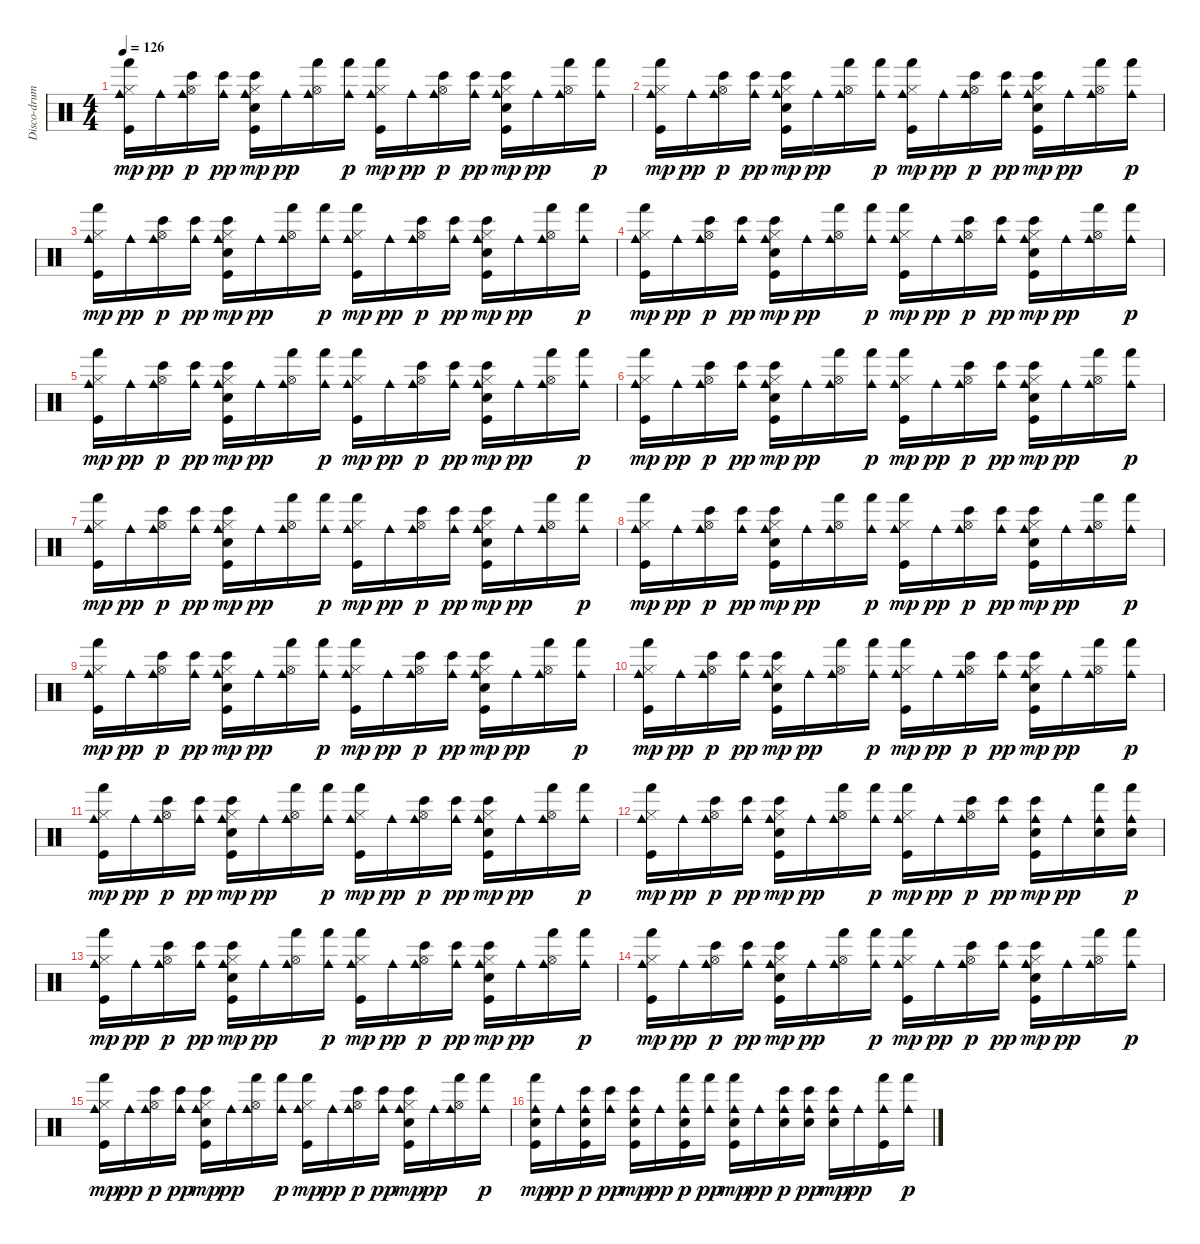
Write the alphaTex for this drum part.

\track ("Disco-drums !" "Disco-drum") {instrument percussion}
\staff {score}
\articulation defaults
\ts (4 4)
\tempo 126
\clef neutral
\ks c
("Hi-Hat (closed)" "Kick (hit)" "Cowbell medium (hit)" "Hand (hit)").16{dy mp} "Cowbell medium (hit)".16{dy pp} ("Hi-Hat (open)" "Cowbell medium (hit)" "Bongo High (hit)").16{dy p} ("Cowbell medium (hit)" "Bongo High (hit)").16{dy pp} ("Hi-Hat (closed)" "Kick (hit)" "Snare (hit) 2" "Cowbell medium (hit)" "Bongo High (hit)").16{dy mp} "Cowbell medium (hit)".16{dy pp} ("Hi-Hat (open)" "Cowbell medium (hit)" "Hand (hit)").16 ("Cowbell medium (hit)" "Hand (hit)").16{dy p} ("Hi-Hat (closed)" "Kick (hit)" "Cowbell medium (hit)" "Hand (hit)").16{dy mp} "Cowbell medium (hit)".16{dy pp} ("Hi-Hat (open)" "Cowbell medium (hit)" "Bongo High (hit)").16{dy p} ("Cowbell medium (hit)" "Bongo High (hit)").16{dy pp} ("Hi-Hat (closed)" "Kick (hit)" "Snare (hit) 2" "Cowbell medium (hit)" "Bongo High (hit)").16{dy mp} "Cowbell medium (hit)".16{dy pp} ("Hi-Hat (open)" "Cowbell medium (hit)" "Hand (hit)").16 ("Cowbell medium (hit)" "Hand (hit)").16{dy p} |
("Hi-Hat (closed)" "Kick (hit)" "Cowbell medium (hit)" "Hand (hit)").16{dy mp} "Cowbell medium (hit)".16{dy pp} ("Hi-Hat (open)" "Cowbell medium (hit)" "Bongo High (hit)").16{dy p} ("Cowbell medium (hit)" "Bongo High (hit)").16{dy pp} ("Hi-Hat (closed)" "Kick (hit)" "Snare (hit) 2" "Cowbell medium (hit)" "Bongo High (hit)").16{dy mp} "Cowbell medium (hit)".16{dy pp} ("Hi-Hat (open)" "Cowbell medium (hit)" "Hand (hit)").16 ("Cowbell medium (hit)" "Hand (hit)").16{dy p} ("Hi-Hat (closed)" "Kick (hit)" "Cowbell medium (hit)" "Hand (hit)").16{dy mp} "Cowbell medium (hit)".16{dy pp} ("Hi-Hat (open)" "Cowbell medium (hit)" "Bongo High (hit)").16{dy p} ("Cowbell medium (hit)" "Bongo High (hit)").16{dy pp} ("Hi-Hat (closed)" "Kick (hit)" "Snare (hit) 2" "Cowbell medium (hit)" "Bongo High (hit)").16{dy mp} "Cowbell medium (hit)".16{dy pp} ("Hi-Hat (open)" "Cowbell medium (hit)" "Hand (hit)").16 ("Cowbell medium (hit)" "Hand (hit)").16{dy p} |
("Hi-Hat (closed)" "Kick (hit)" "Cowbell medium (hit)" "Hand (hit)").16{dy mp} "Cowbell medium (hit)".16{dy pp} ("Hi-Hat (open)" "Cowbell medium (hit)" "Bongo High (hit)").16{dy p} ("Cowbell medium (hit)" "Bongo High (hit)").16{dy pp} ("Hi-Hat (closed)" "Kick (hit)" "Snare (hit) 2" "Cowbell medium (hit)" "Bongo High (hit)").16{dy mp} "Cowbell medium (hit)".16{dy pp} ("Hi-Hat (open)" "Cowbell medium (hit)" "Hand (hit)").16 ("Cowbell medium (hit)" "Hand (hit)").16{dy p} ("Hi-Hat (closed)" "Kick (hit)" "Cowbell medium (hit)" "Hand (hit)").16{dy mp} "Cowbell medium (hit)".16{dy pp} ("Hi-Hat (open)" "Cowbell medium (hit)" "Bongo High (hit)").16{dy p} ("Cowbell medium (hit)" "Bongo High (hit)").16{dy pp} ("Hi-Hat (closed)" "Kick (hit)" "Snare (hit) 2" "Cowbell medium (hit)" "Bongo High (hit)").16{dy mp} "Cowbell medium (hit)".16{dy pp} ("Hi-Hat (open)" "Cowbell medium (hit)" "Hand (hit)").16 ("Cowbell medium (hit)" "Hand (hit)").16{dy p} |
("Hi-Hat (closed)" "Kick (hit)" "Cowbell medium (hit)" "Hand (hit)").16{dy mp} "Cowbell medium (hit)".16{dy pp} ("Hi-Hat (open)" "Cowbell medium (hit)" "Bongo High (hit)").16{dy p} ("Cowbell medium (hit)" "Bongo High (hit)").16{dy pp} ("Hi-Hat (closed)" "Kick (hit)" "Snare (hit) 2" "Cowbell medium (hit)" "Bongo High (hit)").16{dy mp} "Cowbell medium (hit)".16{dy pp} ("Hi-Hat (open)" "Cowbell medium (hit)" "Hand (hit)").16 ("Cowbell medium (hit)" "Hand (hit)").16{dy p} ("Hi-Hat (closed)" "Kick (hit)" "Cowbell medium (hit)" "Hand (hit)").16{dy mp} "Cowbell medium (hit)".16{dy pp} ("Hi-Hat (open)" "Cowbell medium (hit)" "Bongo High (hit)").16{dy p} ("Cowbell medium (hit)" "Bongo High (hit)").16{dy pp} ("Hi-Hat (closed)" "Kick (hit)" "Snare (hit) 2" "Cowbell medium (hit)" "Bongo High (hit)").16{dy mp} "Cowbell medium (hit)".16{dy pp} ("Hi-Hat (open)" "Cowbell medium (hit)" "Hand (hit)").16 ("Cowbell medium (hit)" "Hand (hit)").16{dy p} |
("Hi-Hat (closed)" "Kick (hit)" "Cowbell medium (hit)" "Hand (hit)").16{dy mp} "Cowbell medium (hit)".16{dy pp} ("Hi-Hat (open)" "Cowbell medium (hit)" "Bongo High (hit)").16{dy p} ("Cowbell medium (hit)" "Bongo High (hit)").16{dy pp} ("Hi-Hat (closed)" "Kick (hit)" "Snare (hit) 2" "Cowbell medium (hit)" "Bongo High (hit)").16{dy mp} "Cowbell medium (hit)".16{dy pp} ("Hi-Hat (open)" "Cowbell medium (hit)" "Hand (hit)").16 ("Cowbell medium (hit)" "Hand (hit)").16{dy p} ("Hi-Hat (closed)" "Kick (hit)" "Cowbell medium (hit)" "Hand (hit)").16{dy mp} "Cowbell medium (hit)".16{dy pp} ("Hi-Hat (open)" "Cowbell medium (hit)" "Bongo High (hit)").16{dy p} ("Cowbell medium (hit)" "Bongo High (hit)").16{dy pp} ("Hi-Hat (closed)" "Kick (hit)" "Snare (hit) 2" "Cowbell medium (hit)" "Bongo High (hit)").16{dy mp} "Cowbell medium (hit)".16{dy pp} ("Hi-Hat (open)" "Cowbell medium (hit)" "Hand (hit)").16 ("Cowbell medium (hit)" "Hand (hit)").16{dy p} |
("Hi-Hat (closed)" "Kick (hit)" "Cowbell medium (hit)" "Hand (hit)").16{dy mp} "Cowbell medium (hit)".16{dy pp} ("Hi-Hat (open)" "Cowbell medium (hit)" "Bongo High (hit)").16{dy p} ("Cowbell medium (hit)" "Bongo High (hit)").16{dy pp} ("Hi-Hat (closed)" "Kick (hit)" "Snare (hit) 2" "Cowbell medium (hit)" "Bongo High (hit)").16{dy mp} "Cowbell medium (hit)".16{dy pp} ("Hi-Hat (open)" "Cowbell medium (hit)" "Hand (hit)").16 ("Cowbell medium (hit)" "Hand (hit)").16{dy p} ("Hi-Hat (closed)" "Kick (hit)" "Cowbell medium (hit)" "Hand (hit)").16{dy mp} "Cowbell medium (hit)".16{dy pp} ("Hi-Hat (open)" "Cowbell medium (hit)" "Bongo High (hit)").16{dy p} ("Cowbell medium (hit)" "Bongo High (hit)").16{dy pp} ("Hi-Hat (closed)" "Kick (hit)" "Snare (hit) 2" "Cowbell medium (hit)" "Bongo High (hit)").16{dy mp} "Cowbell medium (hit)".16{dy pp} ("Hi-Hat (open)" "Cowbell medium (hit)" "Hand (hit)").16 ("Cowbell medium (hit)" "Hand (hit)").16{dy p} |
("Hi-Hat (closed)" "Kick (hit)" "Cowbell medium (hit)" "Hand (hit)").16{dy mp} "Cowbell medium (hit)".16{dy pp} ("Hi-Hat (open)" "Cowbell medium (hit)" "Bongo High (hit)").16{dy p} ("Cowbell medium (hit)" "Bongo High (hit)").16{dy pp} ("Hi-Hat (closed)" "Kick (hit)" "Snare (hit) 2" "Cowbell medium (hit)" "Bongo High (hit)").16{dy mp} "Cowbell medium (hit)".16{dy pp} ("Hi-Hat (open)" "Cowbell medium (hit)" "Hand (hit)").16 ("Cowbell medium (hit)" "Hand (hit)").16{dy p} ("Hi-Hat (closed)" "Kick (hit)" "Cowbell medium (hit)" "Hand (hit)").16{dy mp} "Cowbell medium (hit)".16{dy pp} ("Hi-Hat (open)" "Cowbell medium (hit)" "Bongo High (hit)").16{dy p} ("Cowbell medium (hit)" "Bongo High (hit)").16{dy pp} ("Hi-Hat (closed)" "Kick (hit)" "Snare (hit) 2" "Cowbell medium (hit)" "Bongo High (hit)").16{dy mp} "Cowbell medium (hit)".16{dy pp} ("Hi-Hat (open)" "Cowbell medium (hit)" "Hand (hit)").16 ("Cowbell medium (hit)" "Hand (hit)").16{dy p} |
("Hi-Hat (closed)" "Kick (hit)" "Cowbell medium (hit)" "Hand (hit)").16{dy mp} "Cowbell medium (hit)".16{dy pp} ("Hi-Hat (open)" "Cowbell medium (hit)" "Bongo High (hit)").16{dy p} ("Cowbell medium (hit)" "Bongo High (hit)").16{dy pp} ("Hi-Hat (closed)" "Kick (hit)" "Snare (hit) 2" "Cowbell medium (hit)" "Bongo High (hit)").16{dy mp} "Cowbell medium (hit)".16{dy pp} ("Hi-Hat (open)" "Cowbell medium (hit)" "Hand (hit)").16 ("Cowbell medium (hit)" "Hand (hit)").16{dy p} ("Hi-Hat (closed)" "Kick (hit)" "Cowbell medium (hit)" "Hand (hit)").16{dy mp} "Cowbell medium (hit)".16{dy pp} ("Hi-Hat (open)" "Cowbell medium (hit)" "Bongo High (hit)").16{dy p} ("Cowbell medium (hit)" "Bongo High (hit)").16{dy pp} ("Hi-Hat (closed)" "Kick (hit)" "Snare (hit) 2" "Cowbell medium (hit)" "Bongo High (hit)").16{dy mp} "Cowbell medium (hit)".16{dy pp} ("Hi-Hat (open)" "Cowbell medium (hit)" "Hand (hit)").16 ("Cowbell medium (hit)" "Hand (hit)").16{dy p} |
("Hi-Hat (closed)" "Kick (hit)" "Cowbell medium (hit)" "Hand (hit)").16{dy mp} "Cowbell medium (hit)".16{dy pp} ("Hi-Hat (open)" "Cowbell medium (hit)" "Bongo High (hit)").16{dy p} ("Cowbell medium (hit)" "Bongo High (hit)").16{dy pp} ("Hi-Hat (closed)" "Kick (hit)" "Snare (hit) 2" "Cowbell medium (hit)" "Bongo High (hit)").16{dy mp} "Cowbell medium (hit)".16{dy pp} ("Hi-Hat (open)" "Cowbell medium (hit)" "Hand (hit)").16 ("Cowbell medium (hit)" "Hand (hit)").16{dy p} ("Hi-Hat (closed)" "Kick (hit)" "Cowbell medium (hit)" "Hand (hit)").16{dy mp} "Cowbell medium (hit)".16{dy pp} ("Hi-Hat (open)" "Cowbell medium (hit)" "Bongo High (hit)").16{dy p} ("Cowbell medium (hit)" "Bongo High (hit)").16{dy pp} ("Hi-Hat (closed)" "Kick (hit)" "Snare (hit) 2" "Cowbell medium (hit)" "Bongo High (hit)").16{dy mp} "Cowbell medium (hit)".16{dy pp} ("Hi-Hat (open)" "Cowbell medium (hit)" "Hand (hit)").16 ("Cowbell medium (hit)" "Hand (hit)").16{dy p} |
("Hi-Hat (closed)" "Kick (hit)" "Cowbell medium (hit)" "Hand (hit)").16{dy mp} "Cowbell medium (hit)".16{dy pp} ("Hi-Hat (open)" "Cowbell medium (hit)" "Bongo High (hit)").16{dy p} ("Cowbell medium (hit)" "Bongo High (hit)").16{dy pp} ("Hi-Hat (closed)" "Kick (hit)" "Snare (hit) 2" "Cowbell medium (hit)" "Bongo High (hit)").16{dy mp} "Cowbell medium (hit)".16{dy pp} ("Hi-Hat (open)" "Cowbell medium (hit)" "Hand (hit)").16 ("Cowbell medium (hit)" "Hand (hit)").16{dy p} ("Hi-Hat (closed)" "Kick (hit)" "Cowbell medium (hit)" "Hand (hit)").16{dy mp} "Cowbell medium (hit)".16{dy pp} ("Hi-Hat (open)" "Cowbell medium (hit)" "Bongo High (hit)").16{dy p} ("Cowbell medium (hit)" "Bongo High (hit)").16{dy pp} ("Hi-Hat (closed)" "Kick (hit)" "Snare (hit) 2" "Cowbell medium (hit)" "Bongo High (hit)").16{dy mp} "Cowbell medium (hit)".16{dy pp} ("Hi-Hat (open)" "Cowbell medium (hit)" "Hand (hit)").16 ("Cowbell medium (hit)" "Hand (hit)").16{dy p} |
("Hi-Hat (closed)" "Kick (hit)" "Cowbell medium (hit)" "Hand (hit)").16{dy mp} "Cowbell medium (hit)".16{dy pp} ("Hi-Hat (open)" "Cowbell medium (hit)" "Bongo High (hit)").16{dy p} ("Cowbell medium (hit)" "Bongo High (hit)").16{dy pp} ("Hi-Hat (closed)" "Kick (hit)" "Snare (hit) 2" "Cowbell medium (hit)" "Bongo High (hit)").16{dy mp} "Cowbell medium (hit)".16{dy pp} ("Hi-Hat (open)" "Cowbell medium (hit)" "Hand (hit)").16 ("Cowbell medium (hit)" "Hand (hit)").16{dy p} ("Hi-Hat (closed)" "Kick (hit)" "Cowbell medium (hit)" "Hand (hit)").16{dy mp} "Cowbell medium (hit)".16{dy pp} ("Hi-Hat (open)" "Cowbell medium (hit)" "Bongo High (hit)").16{dy p} ("Cowbell medium (hit)" "Bongo High (hit)").16{dy pp} ("Hi-Hat (closed)" "Kick (hit)" "Snare (hit) 2" "Cowbell medium (hit)" "Bongo High (hit)").16{dy mp} "Cowbell medium (hit)".16{dy pp} ("Hi-Hat (open)" "Cowbell medium (hit)" "Hand (hit)").16 ("Cowbell medium (hit)" "Hand (hit)").16{dy p} |
("Hi-Hat (closed)" "Kick (hit)" "Cowbell medium (hit)" "Hand (hit)").16{dy mp} "Cowbell medium (hit)".16{dy pp} ("Hi-Hat (open)" "Cowbell medium (hit)" "Bongo High (hit)").16{dy p} ("Cowbell medium (hit)" "Bongo High (hit)").16{dy pp} ("Hi-Hat (closed)" "Kick (hit)" "Snare (hit) 2" "Cowbell medium (hit)" "Bongo High (hit)").16{dy mp} "Cowbell medium (hit)".16{dy pp} ("Hi-Hat (open)" "Cowbell medium (hit)" "Hand (hit)").16 ("Cowbell medium (hit)" "Hand (hit)").16{dy p} ("Hi-Hat (closed)" "Kick (hit)" "Cowbell medium (hit)" "Hand (hit)").16{dy mp} "Cowbell medium (hit)".16{dy pp} ("Hi-Hat (open)" "Cowbell medium (hit)" "Bongo High (hit)").16{dy p} ("Cowbell medium (hit)" "Bongo High (hit)").16{dy pp} ("Kick (hit)" "Snare (hit) 2" "Cowbell medium (hit)" "Bongo High (hit)").16{dy mp} "Cowbell medium (hit)".16{dy pp} ("Snare (hit) 2" "Cowbell medium (hit)" "Hand (hit)").16 ("Snare (hit) 2" "Cowbell medium (hit)" "Hand (hit)").16{dy p} |
("Hi-Hat (closed)" "Kick (hit)" "Cowbell medium (hit)" "Hand (hit)").16{dy mp} "Cowbell medium (hit)".16{dy pp} ("Hi-Hat (open)" "Cowbell medium (hit)" "Bongo High (hit)").16{dy p} ("Cowbell medium (hit)" "Bongo High (hit)").16{dy pp} ("Hi-Hat (closed)" "Kick (hit)" "Snare (hit) 2" "Cowbell medium (hit)" "Bongo High (hit)").16{dy mp} "Cowbell medium (hit)".16{dy pp} ("Hi-Hat (open)" "Cowbell medium (hit)" "Hand (hit)").16 ("Cowbell medium (hit)" "Hand (hit)").16{dy p} ("Hi-Hat (closed)" "Kick (hit)" "Cowbell medium (hit)" "Hand (hit)").16{dy mp} "Cowbell medium (hit)".16{dy pp} ("Hi-Hat (open)" "Cowbell medium (hit)" "Bongo High (hit)").16{dy p} ("Cowbell medium (hit)" "Bongo High (hit)").16{dy pp} ("Hi-Hat (closed)" "Kick (hit)" "Snare (hit) 2" "Cowbell medium (hit)" "Bongo High (hit)").16{dy mp} "Cowbell medium (hit)".16{dy pp} ("Hi-Hat (open)" "Cowbell medium (hit)" "Hand (hit)").16 ("Cowbell medium (hit)" "Hand (hit)").16{dy p} |
("Hi-Hat (closed)" "Kick (hit)" "Cowbell medium (hit)" "Hand (hit)").16{dy mp} "Cowbell medium (hit)".16{dy pp} ("Hi-Hat (open)" "Cowbell medium (hit)" "Bongo High (hit)").16{dy p} ("Cowbell medium (hit)" "Bongo High (hit)").16{dy pp} ("Hi-Hat (closed)" "Kick (hit)" "Snare (hit) 2" "Cowbell medium (hit)" "Bongo High (hit)").16{dy mp} "Cowbell medium (hit)".16{dy pp} ("Hi-Hat (open)" "Cowbell medium (hit)" "Hand (hit)").16 ("Cowbell medium (hit)" "Hand (hit)").16{dy p} ("Hi-Hat (closed)" "Kick (hit)" "Cowbell medium (hit)" "Hand (hit)").16{dy mp} "Cowbell medium (hit)".16{dy pp} ("Hi-Hat (open)" "Cowbell medium (hit)" "Bongo High (hit)").16{dy p} ("Cowbell medium (hit)" "Bongo High (hit)").16{dy pp} ("Hi-Hat (closed)" "Kick (hit)" "Snare (hit) 2" "Cowbell medium (hit)" "Bongo High (hit)").16{dy mp} "Cowbell medium (hit)".16{dy pp} ("Hi-Hat (open)" "Cowbell medium (hit)" "Hand (hit)").16 ("Cowbell medium (hit)" "Hand (hit)").16{dy p} |
("Hi-Hat (closed)" "Kick (hit)" "Cowbell medium (hit)" "Hand (hit)").16{dy mp} "Cowbell medium (hit)".16{dy pp} ("Hi-Hat (open)" "Cowbell medium (hit)" "Bongo High (hit)").16{dy p} ("Cowbell medium (hit)" "Bongo High (hit)").16{dy pp} ("Hi-Hat (closed)" "Kick (hit)" "Snare (hit) 2" "Cowbell medium (hit)" "Bongo High (hit)").16{dy mp} "Cowbell medium (hit)".16{dy pp} ("Hi-Hat (open)" "Cowbell medium (hit)" "Hand (hit)").16 ("Cowbell medium (hit)" "Hand (hit)").16{dy p} ("Hi-Hat (closed)" "Kick (hit)" "Cowbell medium (hit)" "Hand (hit)").16{dy mp} "Cowbell medium (hit)".16{dy pp} ("Hi-Hat (open)" "Cowbell medium (hit)" "Bongo High (hit)").16{dy p} ("Cowbell medium (hit)" "Bongo High (hit)").16{dy pp} ("Hi-Hat (closed)" "Kick (hit)" "Snare (hit) 2" "Cowbell medium (hit)" "Bongo High (hit)").16{dy mp} "Cowbell medium (hit)".16{dy pp} ("Hi-Hat (open)" "Cowbell medium (hit)" "Hand (hit)").16 ("Cowbell medium (hit)" "Hand (hit)").16{dy p} |
("Kick (hit)" "Snare (hit) 2" "Cowbell medium (hit)" "Hand (hit)").16{dy mp} "Cowbell medium (hit)".16{dy pp} ("Kick (hit)" "Snare (hit) 2" "Cowbell medium (hit)" "Bongo High (hit)").16{dy p} ("Cowbell medium (hit)" "Bongo High (hit)").16{dy pp} ("Kick (hit)" "Snare (hit) 2" "Cowbell medium (hit)" "Bongo High (hit)").16{dy mp} "Cowbell medium (hit)".16{dy pp} ("Kick (hit)" "Snare (hit) 2" "Cowbell medium (hit)" "Hand (hit)").16{dy p} ("Cowbell medium (hit)" "Hand (hit)").16{dy pp} ("Kick (hit)" "Snare (hit) 2" "Cowbell medium (hit)" "Hand (hit)").16{dy mp} "Cowbell medium (hit)".16{dy pp} ("Snare (hit) 2" "Cowbell medium (hit)" "Bongo High (hit)").16{dy p} ("Snare (hit) 2" "Cowbell medium (hit)" "Bongo High (hit)").16{dy pp} ("Snare (hit) 2" "Cowbell medium (hit)" "Bongo High (hit)").16{dy mp} "Cowbell medium (hit)".16{dy pp} ("Kick (hit)" "Cowbell medium (hit)" "Hand (hit)").16 ("Cowbell medium (hit)" "Hand (hit)").16{dy p}
